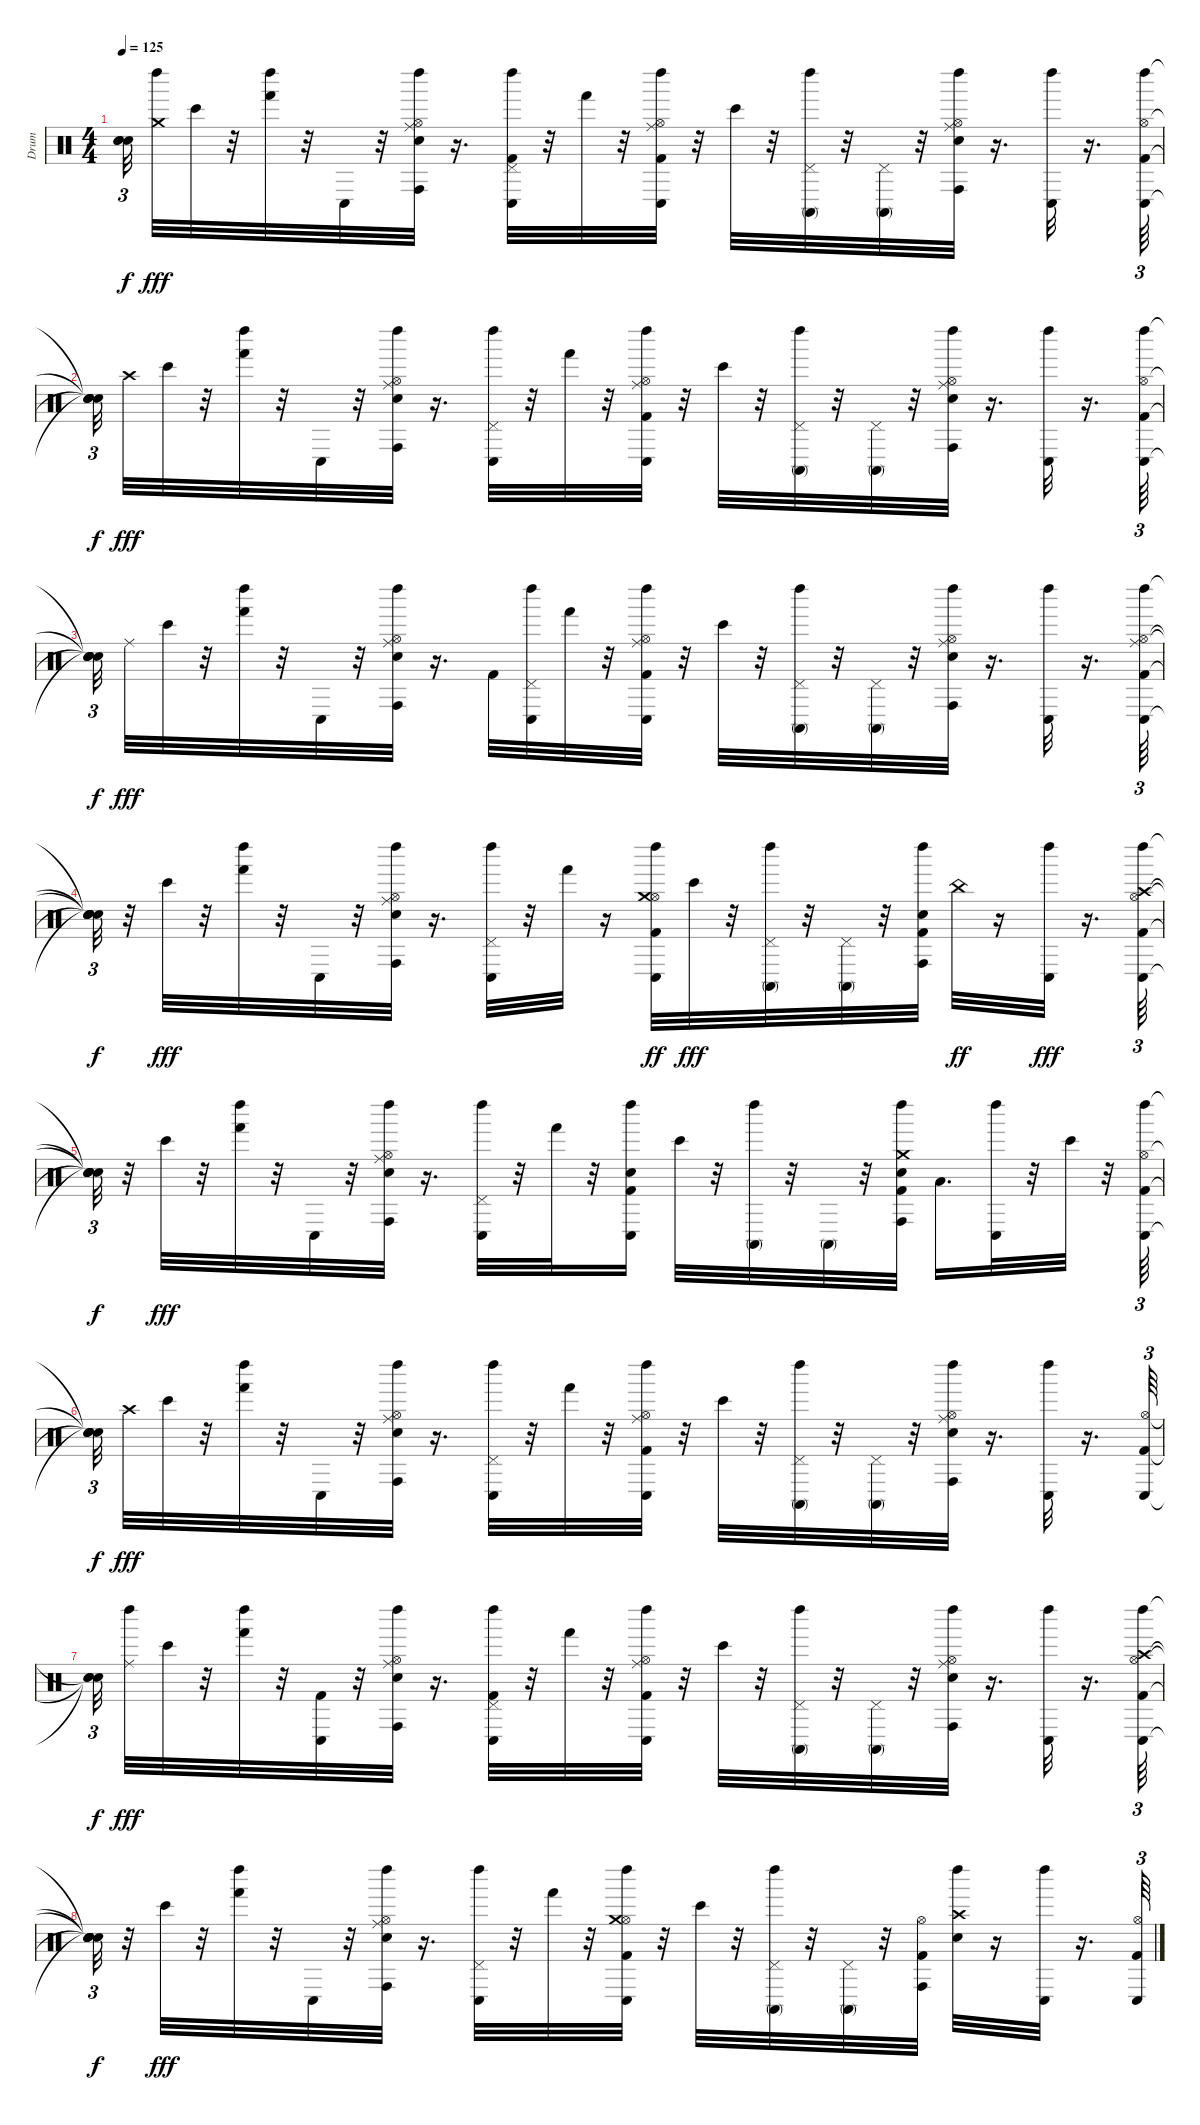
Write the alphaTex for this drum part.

\track ("Drum" "Drum") {instrument percussion}
\staff {score}
\articulation defaults
\ts (4 4)
\tempo 125
\clef neutral
\ks c
("Snare (hit)"{t} "Snare (hit)"{t} "Snare (hit)"{t}).32{tu (3 2) dy f beam splitsecondary} ("Left Maraca (hit)" "Crash medium (hit)").32{dy fff} "Bongo High (hit)".32 r.32 ("Hand (hit)" "Left Maraca (hit)").32 r.32 "Conga low (hit)".32 r.32 ("Hi-Hat (open)" "Conga high (hit)" "Left Maraca (hit)" "Electric Snare (hit)" "Ride (middle)").32 r.16{d} ("Kick (hit) 2" "Pedal Hi-Hat (hit)" "Conga low (hit)" "Left Maraca (hit)").32 r.32 "Hand (hit)".32 r.32 ("Kick (hit) 2" "Hi-Hat (open)" "Conga low (hit)" "Left Maraca (hit)" "Ride (middle)").32 r.32 "Bongo High (hit)".32 r.32 ("Pedal Hi-Hat (hit)" "Conga high (mute)" "Left Maraca (hit)").32 r.32 ("Pedal Hi-Hat (hit)" "Conga high (mute)").32 r.32 ("Hi-Hat (open)" "Conga high (hit)" "Left Maraca (hit)" "Electric Snare (hit)" "Ride (middle)").32 r.16{d} ("Conga low (hit)" "Left Maraca (hit)").32 r.16{d} ("Kick (hit) 2" "Hi-Hat (open)" "Conga low (hit)" "Left Maraca (hit)").64{tu (3 2)} |
("Snare (hit)"{t} "Snare (hit)"{t} "Snare (hit)"{t} "Snare (hit)"{t}).32{tu (3 2) dy f beam splitsecondary} "Crash high (hit)".32{dy fff} "Bongo High (hit)".32 r.32 ("Hand (hit)" "Left Maraca (hit)").32 r.32 "Conga low (hit)".32 r.32 ("Hi-Hat (open)" "Conga high (hit)" "Left Maraca (hit)" "Electric Snare (hit)" "Ride (middle)").32 r.16{d} ("Pedal Hi-Hat (hit)" "Conga low (hit)" "Left Maraca (hit)").32 r.32 "Hand (hit)".32 r.32 ("Kick (hit) 2" "Hi-Hat (open)" "Conga low (hit)" "Left Maraca (hit)" "Ride (middle)").32 r.32 "Bongo High (hit)".32 r.32 ("Pedal Hi-Hat (hit)" "Conga high (mute)" "Left Maraca (hit)").32 r.32 ("Pedal Hi-Hat (hit)" "Conga high (mute)").32 r.32 ("Hi-Hat (open)" "Conga high (hit)" "Left Maraca (hit)" "Electric Snare (hit)" "Ride (middle)").32 r.16{d} ("Conga low (hit)" "Left Maraca (hit)").32 r.16{d} ("Kick (hit) 2" "Hi-Hat (open)" "Conga low (hit)" "Left Maraca (hit)").64{tu (3 2)} |
("Snare (hit)"{t} "Snare (hit)"{t} "Snare (hit)"{t} "Snare (hit)"{t}).32{tu (3 2) dy f beam splitsecondary} "Ride (middle)".32{dy fff} "Bongo High (hit)".32 r.32 ("Hand (hit)" "Left Maraca (hit)").32 r.32 "Conga low (hit)".32 r.32 ("Hi-Hat (open)" "Conga high (hit)" "Left Maraca (hit)" "Electric Snare (hit)" "Ride (middle)").32 r.16{d} "Kick (hit) 2".32 ("Pedal Hi-Hat (hit)" "Conga low (hit)" "Left Maraca (hit)").32 "Hand (hit)".32 r.32 ("Kick (hit) 2" "Hi-Hat (open)" "Conga low (hit)" "Left Maraca (hit)" "Ride (middle)").32 r.32 "Bongo High (hit)".32 r.32 ("Pedal Hi-Hat (hit)" "Conga high (mute)" "Left Maraca (hit)").32 r.32 ("Pedal Hi-Hat (hit)" "Conga high (mute)").32 r.32 ("Hi-Hat (open)" "Conga high (hit)" "Left Maraca (hit)" "Electric Snare (hit)" "Ride (middle)").32 r.16{d} ("Conga low (hit)" "Left Maraca (hit)").32 r.16{d} ("Kick (hit) 2" "Hi-Hat (open)" "Conga low (hit)" "Left Maraca (hit)" "Ride (middle)").64{tu (3 2)} |
("Snare (hit)"{t} "Snare (hit)"{t} "Snare (hit)"{t} "Snare (hit)"{t} "Snare (hit)"{t}).32{tu (3 2) dy f} r.32 "Bongo High (hit)".32{dy fff} r.32 ("Hand (hit)" "Left Maraca (hit)").32 r.32 "Conga low (hit)".32 r.32 ("Hi-Hat (open)" "Conga high (hit)" "Left Maraca (hit)" "Electric Snare (hit)" "Ride (middle)").32 r.16{d} ("Pedal Hi-Hat (hit)" "Conga low (hit)" "Left Maraca (hit)").32 r.32 "Hand (hit)".32 r.16 ("Kick (hit) 2" "Hi-Hat (open)" "Conga low (hit)" "Left Maraca (hit)" "Crash medium (hit)").32{dy ff} "Bongo High (hit)".32{dy fff} r.32 ("Pedal Hi-Hat (hit)" "Conga high (mute)" "Left Maraca (hit)").32 r.32 ("Pedal Hi-Hat (hit)" "Conga high (mute)").32 r.32 ("Kick (hit) 2" "Conga high (hit)" "Left Maraca (hit)" "Electric Snare (hit)").32 "China (hit)".32{dy ff} r.16 ("Conga low (hit)" "Left Maraca (hit)").32{dy fff} r.16{d} ("Kick (hit) 2" "Hi-Hat (open)" "Conga low (hit)" "Left Maraca (hit)" "Crash high (hit)").64{tu (3 2)} |
("Snare (hit)"{t} "Snare (hit)"{t} "Snare (hit)"{t} "Snare (hit)"{t} "Snare (hit)"{t}).32{tu (3 2) dy f} r.32 "Bongo High (hit)".32{dy fff} r.32 ("Hand (hit)" "Left Maraca (hit)").32 r.32 "Conga low (hit)".32 r.32 ("Hi-Hat (open)" "Conga high (hit)" "Left Maraca (hit)" "Electric Snare (hit)" "Ride (middle)").32 r.16{d} ("Pedal Hi-Hat (hit)" "Conga low (hit)" "Left Maraca (hit)").32 r.32 "Hand (hit)".32 r.32 ("Kick (hit) 2" "Conga low (hit)" "Left Maraca (hit)" "Electric Snare (hit)").16 "Bongo High (hit)".32 r.32 ("Conga high (mute)" "Left Maraca (hit)").32 r.32 "Conga high (mute)".32 r.32 ("Kick (hit) 2" "Conga high (hit)" "Left Maraca (hit)" "Electric Snare (hit)" "Crash medium (hit)").32 "Low Tom (hit)".16{d} ("Conga low (hit)" "Left Maraca (hit)").32 r.32 "Bongo High (hit)".32 r.32 ("Kick (hit) 2" "Hi-Hat (open)" "Conga low (hit)" "Left Maraca (hit)").64{tu (3 2)} |
("Snare (hit)"{t} "Snare (hit)"{t} "Snare (hit)"{t} "Snare (hit)"{t}).32{tu (3 2) dy f beam splitsecondary} "Crash high (hit)".32{dy fff} "Bongo High (hit)".32 r.32 ("Hand (hit)" "Left Maraca (hit)").32 r.32 "Conga low (hit)".32 r.32 ("Hi-Hat (open)" "Conga high (hit)" "Left Maraca (hit)" "Electric Snare (hit)" "Ride (middle)").32 r.16{d} ("Pedal Hi-Hat (hit)" "Conga low (hit)" "Left Maraca (hit)").32 r.32 "Hand (hit)".32 r.32 ("Kick (hit) 2" "Hi-Hat (open)" "Conga low (hit)" "Left Maraca (hit)" "Ride (middle)").32 r.32 "Bongo High (hit)".32 r.32 ("Pedal Hi-Hat (hit)" "Conga high (mute)" "Left Maraca (hit)").32 r.32 ("Pedal Hi-Hat (hit)" "Conga high (mute)").32 r.32 ("Hi-Hat (open)" "Conga high (hit)" "Left Maraca (hit)" "Electric Snare (hit)" "Ride (middle)").32 r.16{d} ("Conga low (hit)" "Left Maraca (hit)").32 r.16{d} ("Kick (hit) 2" "Hi-Hat (open)" "Conga low (hit)").64{tu (3 2)} |
("Snare (hit)"{t} "Snare (hit)"{t} "Snare (hit)"{t}).32{tu (3 2) dy f beam splitsecondary} ("Left Maraca (hit)" "Ride (middle)").32{dy fff} "Bongo High (hit)".32 r.32 ("Hand (hit)" "Left Maraca (hit)").32 r.32 ("Kick (hit) 2" "Conga low (hit)").32 r.32 ("Hi-Hat (open)" "Conga high (hit)" "Left Maraca (hit)" "Electric Snare (hit)" "Ride (middle)").32 r.16{d} ("Kick (hit) 2" "Pedal Hi-Hat (hit)" "Conga low (hit)" "Left Maraca (hit)").32 r.32 "Hand (hit)".32 r.32 ("Kick (hit) 2" "Hi-Hat (open)" "Conga low (hit)" "Left Maraca (hit)" "Ride (middle)").32 r.32 "Bongo High (hit)".32 r.32 ("Pedal Hi-Hat (hit)" "Conga high (mute)" "Left Maraca (hit)").32 r.32 ("Pedal Hi-Hat (hit)" "Conga high (mute)").32 r.32 ("Hi-Hat (open)" "Conga high (hit)" "Left Maraca (hit)" "Electric Snare (hit)" "Ride (middle)").32 r.16{d} ("Conga low (hit)" "Left Maraca (hit)").32 r.16{d} ("Kick (hit) 2" "Hi-Hat (open)" "Conga low (hit)" "Left Maraca (hit)" "Crash high (hit)").64{tu (3 2)} |
("Snare (hit)"{t} "Snare (hit)"{t} "Snare (hit)"{t} "Snare (hit)"{t} "Snare (hit)"{t}).32{tu (3 2) dy f} r.32 "Bongo High (hit)".32{dy fff} r.32 ("Hand (hit)" "Left Maraca (hit)").32 r.32 "Conga low (hit)".32 r.32 ("Hi-Hat (open)" "Conga high (hit)" "Left Maraca (hit)" "Electric Snare (hit)" "Ride (middle)").32 r.16{d} ("Pedal Hi-Hat (hit)" "Conga low (hit)" "Left Maraca (hit)").32 r.32 "Hand (hit)".32 r.32 ("Kick (hit) 2" "Hi-Hat (open)" "Conga low (hit)" "Left Maraca (hit)" "Crash medium (hit)").32 r.32 "Bongo High (hit)".32 r.32 ("Pedal Hi-Hat (hit)" "Conga high (mute)" "Left Maraca (hit)").32 r.32 ("Pedal Hi-Hat (hit)" "Conga high (mute)").32 r.32 ("Kick (hit) 2" "Hi-Hat (open)" "Conga high (hit)").32 ("Left Maraca (hit)" "Electric Snare (hit)" "Crash high (hit)").32 r.16 ("Conga low (hit)" "Left Maraca (hit)").32 r.16{d} ("Kick (hit) 2" "Hi-Hat (open)" "Conga low (hit)").64{tu (3 2)}
